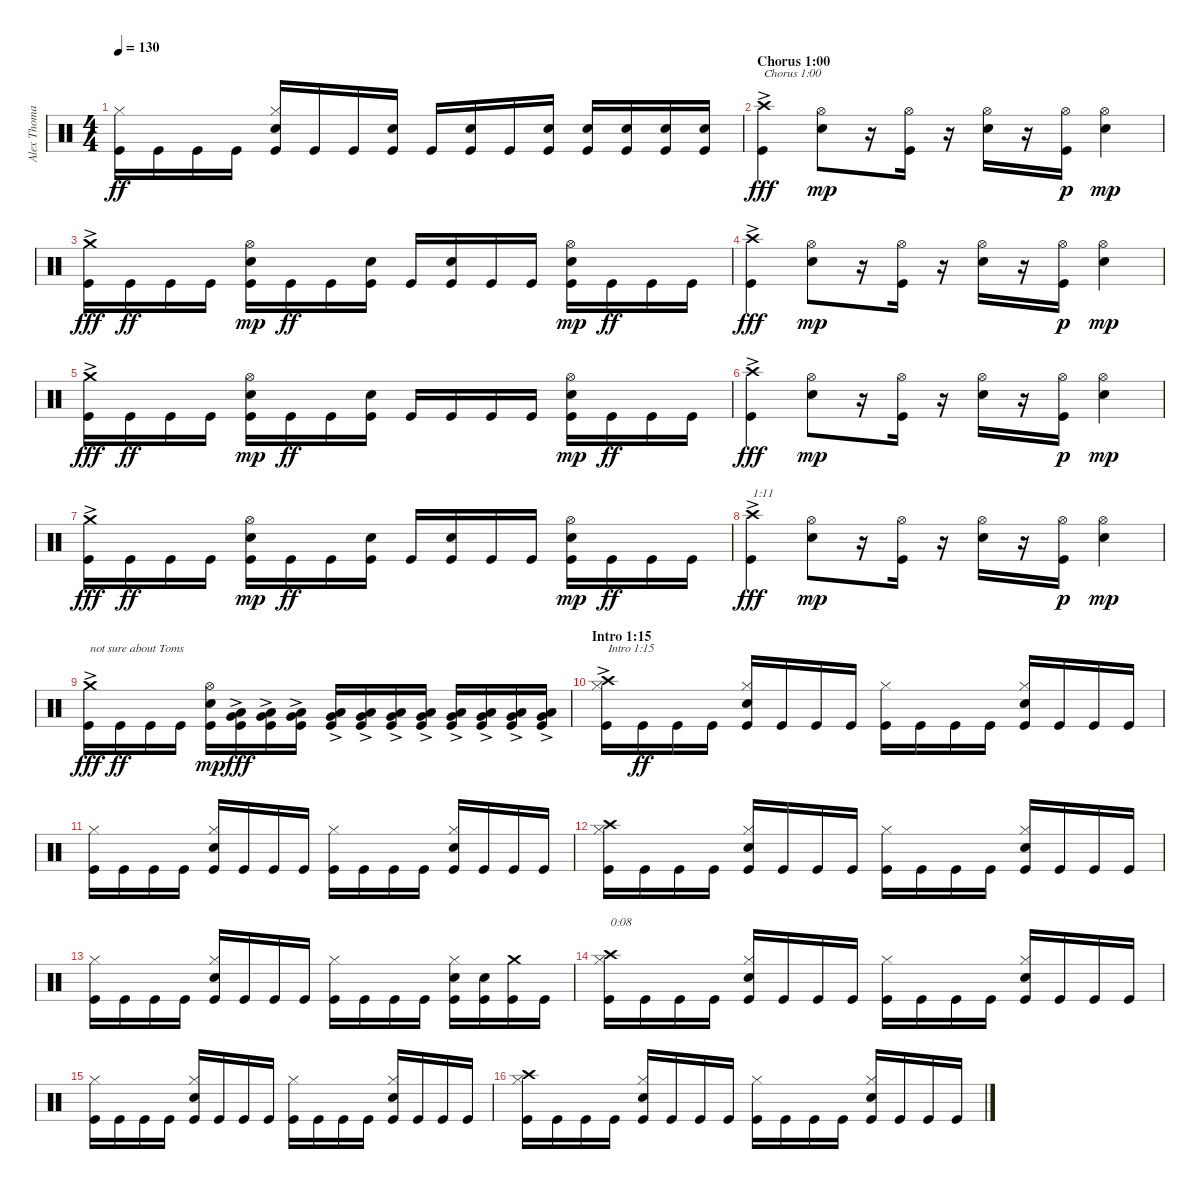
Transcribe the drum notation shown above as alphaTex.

\track ("Alex Thomas (Drums)" "Alex Thoma") {instrument percussion}
\staff {score}
\articulation defaults
\ts (4 4)
\tempo 130
\clef neutral
\ks c
("Kick (hit)" "Hi-Hat (closed)").16{dy ff} "Kick (hit)".16 "Kick (hit)".16 "Kick (hit)".16 ("Kick (hit)" "Electric Snare (hit)" "Hi-Hat (closed)").16 "Kick (hit)".16 "Kick (hit)".16 ("Kick (hit)" "Electric Snare (hit)").16 "Kick (hit)".16 ("Kick (hit)" "Electric Snare (hit)").16 "Kick (hit)".16 ("Kick (hit)" "Electric Snare (hit)").16 ("Kick (hit)" "Electric Snare (hit)").16 ("Kick (hit)" "Electric Snare (hit)").16 ("Kick (hit)" "Electric Snare (hit)").16 ("Kick (hit)" "Electric Snare (hit)").16 |
\section ("" "Chorus 1:00")
("Kick (hit)" "Crash high (hit)"{ac}).4{txt "Chorus 1:00" dy fff} ("Electric Snare (hit)" "Hi-Hat (open)").8{dy mp} r.16 ("Kick (hit)" "Hi-Hat (open)").16 r.16 ("Electric Snare (hit)" "Hi-Hat (open)").16 r.16 ("Kick (hit)" "Hi-Hat (open)").16{dy p} ("Electric Snare (hit)" "Hi-Hat (open)").4{dy mp} |
("Kick (hit)" "Crash medium (hit)"{ac}).16{dy fff} "Kick (hit)".16{dy ff} "Kick (hit)".16 "Kick (hit)".16 ("Kick (hit)" "Electric Snare (hit)" "Hi-Hat (open)").16{dy mp} "Kick (hit)".16{dy ff} "Kick (hit)".16 ("Kick (hit)" "Electric Snare (hit)").16 "Kick (hit)".16 ("Kick (hit)" "Electric Snare (hit)").16 "Kick (hit)".16 "Kick (hit)".16 ("Kick (hit)" "Electric Snare (hit)" "Hi-Hat (open)").16{dy mp} "Kick (hit)".16{dy ff} "Kick (hit)".16 "Kick (hit)".16 |
("Kick (hit)" "Crash high (hit)"{ac}).4{dy fff} ("Electric Snare (hit)" "Hi-Hat (open)").8{dy mp} r.16 ("Kick (hit)" "Hi-Hat (open)").16 r.16 ("Electric Snare (hit)" "Hi-Hat (open)").16 r.16 ("Kick (hit)" "Hi-Hat (open)").16{dy p} ("Electric Snare (hit)" "Hi-Hat (open)").4{dy mp} |
("Kick (hit)" "Crash medium (hit)"{ac}).16{dy fff} "Kick (hit)".16{dy ff} "Kick (hit)".16 "Kick (hit)".16 ("Kick (hit)" "Electric Snare (hit)" "Hi-Hat (open)").16{dy mp} "Kick (hit)".16{dy ff} "Kick (hit)".16 ("Kick (hit)" "Electric Snare (hit)").16 "Kick (hit)".16 "Kick (hit)".16 "Kick (hit)".16 "Kick (hit)".16 ("Kick (hit)" "Electric Snare (hit)" "Hi-Hat (open)").16{dy mp} "Kick (hit)".16{dy ff} "Kick (hit)".16 "Kick (hit)".16 |
("Kick (hit)" "Crash high (hit)"{ac}).4{dy fff} ("Electric Snare (hit)" "Hi-Hat (open)").8{dy mp} r.16 ("Kick (hit)" "Hi-Hat (open)").16 r.16 ("Electric Snare (hit)" "Hi-Hat (open)").16 r.16 ("Kick (hit)" "Hi-Hat (open)").16{dy p} ("Electric Snare (hit)" "Hi-Hat (open)").4{dy mp} |
("Kick (hit)" "Crash medium (hit)"{ac}).16{dy fff} "Kick (hit)".16{dy ff} "Kick (hit)".16 "Kick (hit)".16 ("Kick (hit)" "Electric Snare (hit)" "Hi-Hat (open)").16{dy mp} "Kick (hit)".16{dy ff} "Kick (hit)".16 ("Kick (hit)" "Electric Snare (hit)").16 "Kick (hit)".16 ("Kick (hit)" "Electric Snare (hit)").16 "Kick (hit)".16 "Kick (hit)".16 ("Kick (hit)" "Electric Snare (hit)" "Hi-Hat (open)").16{dy mp} "Kick (hit)".16{dy ff} "Kick (hit)".16 "Kick (hit)".16 |
("Kick (hit)" "Crash high (hit)"{ac}).4{txt "1:11" dy fff} ("Electric Snare (hit)" "Hi-Hat (open)").8{dy mp} r.16 ("Kick (hit)" "Hi-Hat (open)").16 r.16 ("Electric Snare (hit)" "Hi-Hat (open)").16 r.16 ("Kick (hit)" "Hi-Hat (open)").16{dy p} ("Electric Snare (hit)" "Hi-Hat (open)").4{dy mp} |
("Kick (hit)" "Crash medium (hit)"{ac}).16{txt "not sure about Toms" dy fff} "Kick (hit)".16{dy ff} "Kick (hit)".16 "Kick (hit)".16 ("Kick (hit)" "Electric Snare (hit)" "Hi-Hat (open)").16{dy mp} ("Kick (hit)" "Low Tom (hit)"{ac} "Very Low Tom (hit)"{ac}).16{dy fff} ("Kick (hit)" "Low Tom (hit)"{ac} "Very Low Tom (hit)"{ac}).16 ("Kick (hit)" "Low Tom (hit)"{ac} "Very Low Tom (hit)"{ac}).16 ("Kick (hit)" "Low Tom (hit)"{ac} "Very Low Tom (hit)").16 ("Kick (hit)" "Low Tom (hit)"{ac} "Very Low Tom (hit)"{ac}).16 ("Kick (hit)" "Low Floor Tom (hit)"{ac} "Very Low Tom (hit)"{ac}).16 ("Kick (hit)" "Low Tom (hit)"{ac} "Very Low Tom (hit)"{ac}).16 ("Kick (hit)" "Low Tom (hit)"{ac} "Very Low Tom (hit)"{ac}).16 ("Kick (hit)" "Low Tom (hit)"{ac} "Very Low Tom (hit)"{ac}).16 ("Kick (hit)" "Low Floor Tom (hit)"{ac} "Very Low Tom (hit)"{ac}).16 ("Kick (hit)" "Low Floor Tom (hit)"{ac} "Very Low Tom (hit)"{ac}).16 |
\section ("" "Intro 1:15")
("Kick (hit)" "Hi-Hat (closed)" "Crash high (hit)"{ac}).16{txt "Intro 1:15"} "Kick (hit)".16{dy ff} "Kick (hit)".16 "Kick (hit)".16 ("Kick (hit)" "Electric Snare (hit)" "Hi-Hat (closed)").16 "Kick (hit)".16 "Kick (hit)".16 "Kick (hit)".16 ("Kick (hit)" "Hi-Hat (closed)").16 "Kick (hit)".16 "Kick (hit)".16 "Kick (hit)".16 ("Kick (hit)" "Electric Snare (hit)" "Hi-Hat (closed)").16 "Kick (hit)".16 "Kick (hit)".16 "Kick (hit)".16 |
("Kick (hit)" "Hi-Hat (closed)").16 "Kick (hit)".16 "Kick (hit)".16 "Kick (hit)".16 ("Kick (hit)" "Electric Snare (hit)" "Hi-Hat (closed)").16 "Kick (hit)".16 "Kick (hit)".16 "Kick (hit)".16 ("Kick (hit)" "Hi-Hat (closed)").16 "Kick (hit)".16 "Kick (hit)".16 "Kick (hit)".16 ("Kick (hit)" "Electric Snare (hit)" "Hi-Hat (closed)").16 "Kick (hit)".16 "Kick (hit)".16 "Kick (hit)".16 |
("Kick (hit)" "Hi-Hat (closed)" "Crash high (hit)").16 "Kick (hit)".16 "Kick (hit)".16 "Kick (hit)".16 ("Kick (hit)" "Electric Snare (hit)" "Hi-Hat (closed)").16 "Kick (hit)".16 "Kick (hit)".16 "Kick (hit)".16 ("Kick (hit)" "Hi-Hat (closed)").16 "Kick (hit)".16 "Kick (hit)".16 "Kick (hit)".16 ("Kick (hit)" "Electric Snare (hit)" "Hi-Hat (closed)").16 "Kick (hit)".16 "Kick (hit)".16 "Kick (hit)".16 |
("Kick (hit)" "Hi-Hat (closed)").16 "Kick (hit)".16 "Kick (hit)".16 "Kick (hit)".16 ("Kick (hit)" "Electric Snare (hit)" "Hi-Hat (closed)").16 "Kick (hit)".16 "Kick (hit)".16 "Kick (hit)".16 ("Kick (hit)" "Hi-Hat (closed)").16 "Kick (hit)".16 "Kick (hit)".16 "Kick (hit)".16 ("Kick (hit)" "Electric Snare (hit)" "Hi-Hat (closed)").16 ("Kick (hit)" "Electric Snare (hit)").16 ("Kick (hit)" "Crash medium (hit)").16 "Kick (hit)".16 |
("Kick (hit)" "Hi-Hat (closed)" "Crash high (hit)").16{txt "0:08"} "Kick (hit)".16 "Kick (hit)".16 "Kick (hit)".16 ("Kick (hit)" "Electric Snare (hit)" "Hi-Hat (closed)").16 "Kick (hit)".16 "Kick (hit)".16 "Kick (hit)".16 ("Kick (hit)" "Hi-Hat (closed)").16 "Kick (hit)".16 "Kick (hit)".16 "Kick (hit)".16 ("Kick (hit)" "Electric Snare (hit)" "Hi-Hat (closed)").16 "Kick (hit)".16 "Kick (hit)".16 "Kick (hit)".16 |
("Kick (hit)" "Hi-Hat (closed)").16 "Kick (hit)".16 "Kick (hit)".16 "Kick (hit)".16 ("Kick (hit)" "Electric Snare (hit)" "Hi-Hat (closed)").16 "Kick (hit)".16 "Kick (hit)".16 "Kick (hit)".16 ("Kick (hit)" "Hi-Hat (closed)").16 "Kick (hit)".16 "Kick (hit)".16 "Kick (hit)".16 ("Kick (hit)" "Electric Snare (hit)" "Hi-Hat (closed)").16 "Kick (hit)".16 "Kick (hit)".16 "Kick (hit)".16 |
("Kick (hit)" "Hi-Hat (closed)" "Crash high (hit)").16 "Kick (hit)".16 "Kick (hit)".16 "Kick (hit)".16 ("Kick (hit)" "Electric Snare (hit)" "Hi-Hat (closed)").16 "Kick (hit)".16 "Kick (hit)".16 "Kick (hit)".16 ("Kick (hit)" "Hi-Hat (closed)").16 "Kick (hit)".16 "Kick (hit)".16 "Kick (hit)".16 ("Kick (hit)" "Electric Snare (hit)" "Hi-Hat (closed)").16 "Kick (hit)".16 "Kick (hit)".16 "Kick (hit)".16
